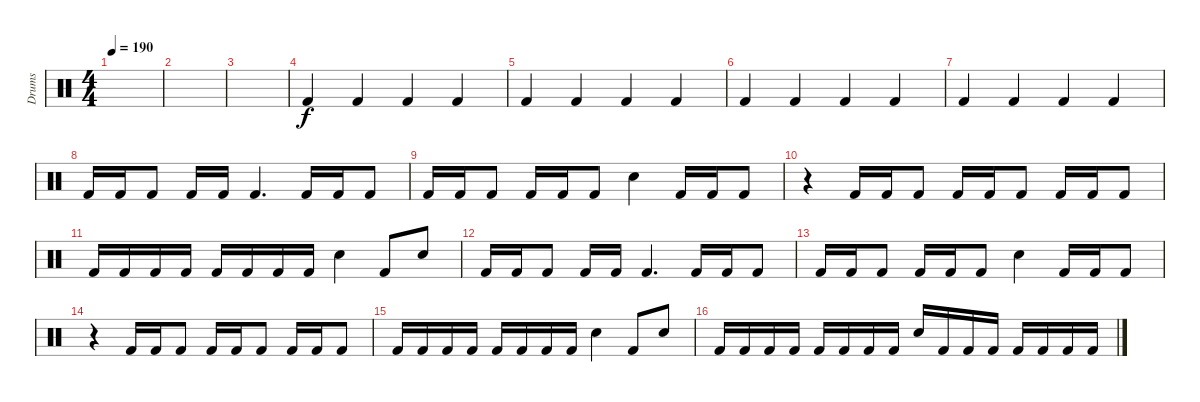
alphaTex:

\track ("Drums" "Drums") {instrument percussion}
\staff {score}
\articulation defaults
\ts (4 4)
\tempo 190
\clef neutral
\ks c
|
|
|
"Kick (hit) 2".4 "Kick (hit) 2".4 "Kick (hit) 2".4 "Kick (hit) 2".4 |
"Kick (hit) 2".4 "Kick (hit) 2".4 "Kick (hit) 2".4 "Kick (hit) 2".4 |
"Kick (hit) 2".4 "Kick (hit) 2".4 "Kick (hit) 2".4 "Kick (hit) 2".4 |
"Kick (hit) 2".4 "Kick (hit) 2".4 "Kick (hit) 2".4 "Kick (hit) 2".4 |
"Kick (hit) 2".16 "Kick (hit) 2".16 "Kick (hit) 2".8 "Kick (hit) 2".16 "Kick (hit) 2".16 "Kick (hit) 2".4{d} "Kick (hit) 2".16 "Kick (hit) 2".16 "Kick (hit) 2".8 |
"Kick (hit) 2".16 "Kick (hit) 2".16 "Kick (hit) 2".8 "Kick (hit) 2".16 "Kick (hit) 2".16 "Kick (hit) 2".8 "Snare (hit) 2".4 "Kick (hit) 2".16 "Kick (hit) 2".16 "Kick (hit) 2".8 |
r.4 "Kick (hit) 2".16 "Kick (hit) 2".16 "Kick (hit) 2".8 "Kick (hit) 2".16 "Kick (hit) 2".16 "Kick (hit) 2".8 "Kick (hit) 2".16 "Kick (hit) 2".16 "Kick (hit) 2".8 |
"Kick (hit) 2".16 "Kick (hit) 2".16 "Kick (hit) 2".16 "Kick (hit) 2".16 "Kick (hit) 2".16 "Kick (hit) 2".16 "Kick (hit) 2".16 "Kick (hit) 2".16 "Snare (hit) 2".4 "Kick (hit) 2".8 "Snare (hit) 2".8 |
"Kick (hit) 2".16 "Kick (hit) 2".16 "Kick (hit) 2".8 "Kick (hit) 2".16 "Kick (hit) 2".16 "Kick (hit) 2".4{d} "Kick (hit) 2".16 "Kick (hit) 2".16 "Kick (hit) 2".8 |
"Kick (hit) 2".16 "Kick (hit) 2".16 "Kick (hit) 2".8 "Kick (hit) 2".16 "Kick (hit) 2".16 "Kick (hit) 2".8 "Snare (hit) 2".4 "Kick (hit) 2".16 "Kick (hit) 2".16 "Kick (hit) 2".8 |
r.4 "Kick (hit) 2".16 "Kick (hit) 2".16 "Kick (hit) 2".8 "Kick (hit) 2".16 "Kick (hit) 2".16 "Kick (hit) 2".8 "Kick (hit) 2".16 "Kick (hit) 2".16 "Kick (hit) 2".8 |
"Kick (hit) 2".16 "Kick (hit) 2".16 "Kick (hit) 2".16 "Kick (hit) 2".16 "Kick (hit) 2".16 "Kick (hit) 2".16 "Kick (hit) 2".16 "Kick (hit) 2".16 "Snare (hit) 2".4 "Kick (hit) 2".8 "Snare (hit) 2".8 |
"Kick (hit) 2".16 "Kick (hit) 2".16 "Kick (hit) 2".16 "Kick (hit) 2".16 "Kick (hit) 2".16 "Kick (hit) 2".16 "Kick (hit) 2".16 "Kick (hit) 2".16 "Snare (hit) 2".16 "Kick (hit) 2".16 "Kick (hit) 2".16 "Kick (hit) 2".16 "Kick (hit) 2".16 "Kick (hit) 2".16 "Kick (hit) 2".16 "Kick (hit) 2".16
